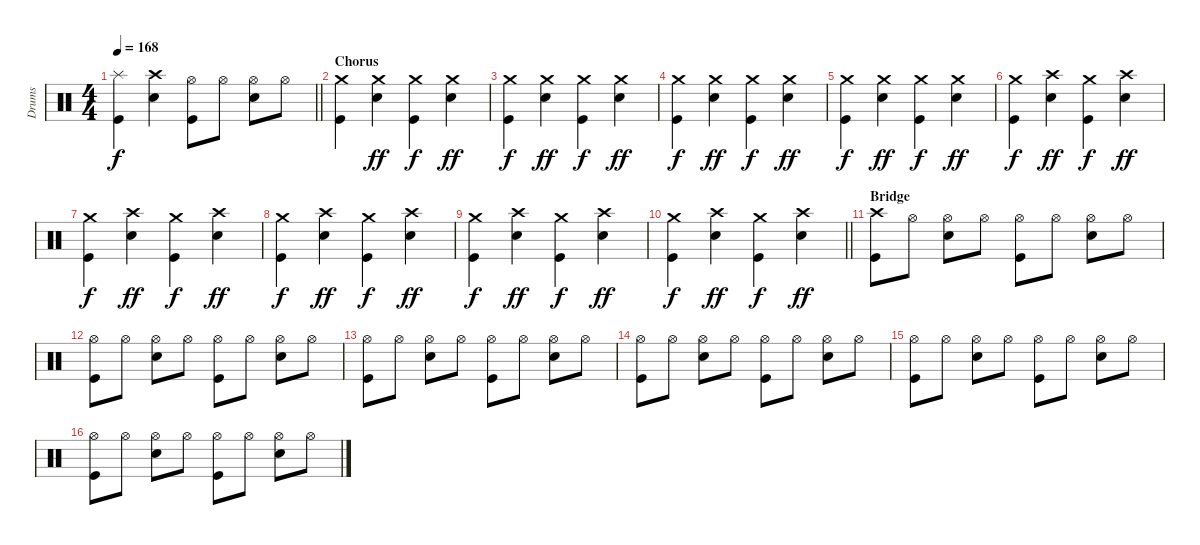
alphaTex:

\track ("Drums" "Drums") {instrument percussion}
\staff {score}
\articulation defaults
\ts (4 4)
\tempo 168
\clef neutral
\barLineRight lightlight
\ks c
("Splash (hit)" "Kick (hit)").4{dy f} ("Crash high (hit)" "Snare (hit) 2").4 ("Hi-Hat (open)" "Kick (hit)").8 "Hi-Hat (open)".8 ("Hi-Hat (open)" "Snare (hit) 2").8 "Hi-Hat (open)".8 |
\section ("" "Chorus")
("Crash medium (hit)" "Kick (hit)").4 ("Crash medium (hit)" "Snare (hit) 2").4{dy ff} ("Crash medium (hit)" "Kick (hit)").4{dy f} ("Crash medium (hit)" "Snare (hit) 2").4{dy ff} |
("Crash medium (hit)" "Kick (hit)").4{dy f} ("Crash medium (hit)" "Snare (hit) 2").4{dy ff} ("Crash medium (hit)" "Kick (hit)").4{dy f} ("Crash medium (hit)" "Snare (hit) 2").4{dy ff} |
("Crash medium (hit)" "Kick (hit)").4{dy f} ("Crash medium (hit)" "Snare (hit) 2").4{dy ff} ("Crash medium (hit)" "Kick (hit)").4{dy f} ("Crash medium (hit)" "Snare (hit) 2").4{dy ff} |
("Crash medium (hit)" "Kick (hit)").4{dy f} ("Crash medium (hit)" "Snare (hit) 2").4{dy ff} ("Crash medium (hit)" "Kick (hit)").4{dy f} ("Crash medium (hit)" "Snare (hit) 2").4{dy ff} |
("Crash medium (hit)" "Kick (hit)").4{dy f} ("Crash high (hit)" "Snare (hit) 2").4{dy ff} ("Crash medium (hit)" "Kick (hit)").4{dy f} ("Crash high (hit)" "Snare (hit) 2").4{dy ff} |
("Crash medium (hit)" "Kick (hit)").4{dy f} ("Crash high (hit)" "Snare (hit) 2").4{dy ff} ("Crash medium (hit)" "Kick (hit)").4{dy f} ("Crash high (hit)" "Snare (hit) 2").4{dy ff} |
("Crash medium (hit)" "Kick (hit)").4{dy f} ("Crash high (hit)" "Snare (hit) 2").4{dy ff} ("Crash medium (hit)" "Kick (hit)").4{dy f} ("Crash high (hit)" "Snare (hit) 2").4{dy ff} |
("Crash medium (hit)" "Kick (hit)").4{dy f} ("Crash high (hit)" "Snare (hit) 2").4{dy ff} ("Crash medium (hit)" "Kick (hit)").4{dy f} ("Crash high (hit)" "Snare (hit) 2").4{dy ff} |
\barLineRight lightlight
("Crash medium (hit)" "Kick (hit)").4{dy f} ("Crash high (hit)" "Snare (hit) 2").4{dy ff} ("Crash medium (hit)" "Kick (hit)").4{dy f} ("Crash high (hit)" "Snare (hit) 2").4{dy ff} |
\section ("" "Bridge")
("Crash high (hit)" "Kick (hit)").8 "Hi-Hat (open)".8 ("Hi-Hat (open)" "Snare (hit) 2").8 "Hi-Hat (open)".8 ("Hi-Hat (open)" "Kick (hit)").8 "Hi-Hat (open)".8 ("Hi-Hat (open)" "Snare (hit) 2").8 "Hi-Hat (open)".8 |
("Hi-Hat (open)" "Kick (hit)").8 "Hi-Hat (open)".8 ("Hi-Hat (open)" "Snare (hit) 2").8 "Hi-Hat (open)".8 ("Hi-Hat (open)" "Kick (hit)").8 "Hi-Hat (open)".8 ("Hi-Hat (open)" "Snare (hit) 2").8 "Hi-Hat (open)".8 |
("Hi-Hat (open)" "Kick (hit)").8 "Hi-Hat (open)".8 ("Hi-Hat (open)" "Snare (hit) 2").8 "Hi-Hat (open)".8 ("Hi-Hat (open)" "Kick (hit)").8 "Hi-Hat (open)".8 ("Hi-Hat (open)" "Snare (hit) 2").8 "Hi-Hat (open)".8 |
("Hi-Hat (open)" "Kick (hit)").8 "Hi-Hat (open)".8 ("Hi-Hat (open)" "Snare (hit) 2").8 "Hi-Hat (open)".8 ("Hi-Hat (open)" "Kick (hit)").8 "Hi-Hat (open)".8 ("Hi-Hat (open)" "Snare (hit) 2").8 "Hi-Hat (open)".8 |
("Hi-Hat (open)" "Kick (hit)").8 "Hi-Hat (open)".8 ("Hi-Hat (open)" "Snare (hit) 2").8 "Hi-Hat (open)".8 ("Hi-Hat (open)" "Kick (hit)").8 "Hi-Hat (open)".8 ("Hi-Hat (open)" "Snare (hit) 2").8 "Hi-Hat (open)".8 |
("Hi-Hat (open)" "Kick (hit)").8 "Hi-Hat (open)".8 ("Hi-Hat (open)" "Snare (hit) 2").8 "Hi-Hat (open)".8 ("Hi-Hat (open)" "Kick (hit)").8 "Hi-Hat (open)".8 ("Hi-Hat (open)" "Snare (hit) 2").8 "Hi-Hat (open)".8
